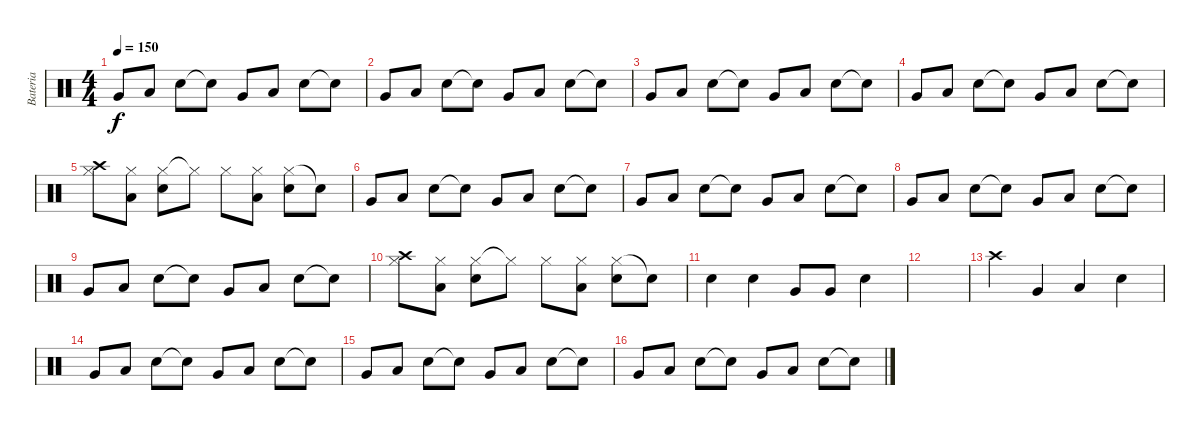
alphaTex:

\track ("Bateria" "Bateria") {instrument percussion}
\staff {score}
\articulation defaults
\ts (4 4)
\tempo 150
\clef neutral
\ks c "Very Low Tom (hit)".8{dy f} "Low Floor Tom (hit)".8 "Snare (hit) 2".8 "Snare (hit)"{t}.8 "Very Low Tom (hit)".8 "Low Floor Tom (hit)".8 "Snare (hit) 2".8 "Snare (hit)"{t}.8
|
"Very Low Tom (hit)".8 "Low Floor Tom (hit)".8 "Snare (hit) 2".8 "Snare (hit)"{t}.8 "Very Low Tom (hit)".8 "Low Floor Tom (hit)".8 "Snare (hit) 2".8 "Snare (hit)"{t}.8 |
"Very Low Tom (hit)".8 "Low Floor Tom (hit)".8 "Snare (hit) 2".8 "Snare (hit)"{t}.8 "Very Low Tom (hit)".8 "Low Floor Tom (hit)".8 "Snare (hit) 2".8 "Snare (hit)"{t}.8 |
"Very Low Tom (hit)".8 "Low Floor Tom (hit)".8 "Snare (hit) 2".8 "Snare (hit)"{t}.8 "Very Low Tom (hit)".8 "Low Floor Tom (hit)".8 "Snare (hit) 2".8 "Snare (hit)"{t}.8 |
("Hi-Hat (closed)" "Crash high (hit)").8 ("Low Floor Tom (hit)" "Hi-Hat (closed)").8 ("Hi-Hat (closed)" "Snare (hit) 2").8 "Hi-Hat (closed)"{t}.8 "Hi-Hat (closed)".8 ("Low Floor Tom (hit)" "Hi-Hat (closed)").8 ("Hi-Hat (closed)" "Snare (hit) 2").8 "Snare (hit)"{t}.8 |
"Very Low Tom (hit)".8 "Low Floor Tom (hit)".8 "Snare (hit) 2".8 "Snare (hit)"{t}.8 "Very Low Tom (hit)".8 "Low Floor Tom (hit)".8 "Snare (hit) 2".8 "Snare (hit)"{t}.8 |
"Very Low Tom (hit)".8 "Low Floor Tom (hit)".8 "Snare (hit) 2".8 "Snare (hit)"{t}.8 "Very Low Tom (hit)".8 "Low Floor Tom (hit)".8 "Snare (hit) 2".8 "Snare (hit)"{t}.8 |
"Very Low Tom (hit)".8 "Low Floor Tom (hit)".8 "Snare (hit) 2".8 "Snare (hit)"{t}.8 "Very Low Tom (hit)".8 "Low Floor Tom (hit)".8 "Snare (hit) 2".8 "Snare (hit)"{t}.8 |
"Very Low Tom (hit)".8 "Low Floor Tom (hit)".8 "Snare (hit) 2".8 "Snare (hit)"{t}.8 "Very Low Tom (hit)".8 "Low Floor Tom (hit)".8 "Snare (hit) 2".8 "Snare (hit)"{t}.8 |
("Hi-Hat (closed)" "Crash high (hit)").8 ("Low Floor Tom (hit)" "Hi-Hat (closed)").8 ("Hi-Hat (closed)" "Snare (hit) 2").8 "Hi-Hat (closed)"{t}.8 "Hi-Hat (closed)".8 ("Low Floor Tom (hit)" "Hi-Hat (closed)").8 ("Hi-Hat (closed)" "Snare (hit) 2").8 "Snare (hit)"{t}.8 |
"Snare (hit) 2".4 "Electric Snare (hit)".4 "Very Low Tom (hit)".8 "Very Low Tom (hit)".8 "Electric Snare (hit)".4 |
|
"Crash high (hit)".4 "Very Low Tom (hit)".4 "Low Floor Tom (hit)".4 "Snare (hit) 2".4 |
"Very Low Tom (hit)".8 "Low Floor Tom (hit)".8 "Snare (hit) 2".8 "Snare (hit)"{t}.8 "Very Low Tom (hit)".8 "Low Floor Tom (hit)".8 "Snare (hit) 2".8 "Snare (hit)"{t}.8 |
"Very Low Tom (hit)".8 "Low Floor Tom (hit)".8 "Snare (hit) 2".8 "Snare (hit)"{t}.8 "Very Low Tom (hit)".8 "Low Floor Tom (hit)".8 "Snare (hit) 2".8 "Snare (hit)"{t}.8 |
"Very Low Tom (hit)".8 "Low Floor Tom (hit)".8 "Snare (hit) 2".8 "Snare (hit)"{t}.8 "Very Low Tom (hit)".8 "Low Floor Tom (hit)".8 "Snare (hit) 2".8 "Snare (hit)"{t}.8
